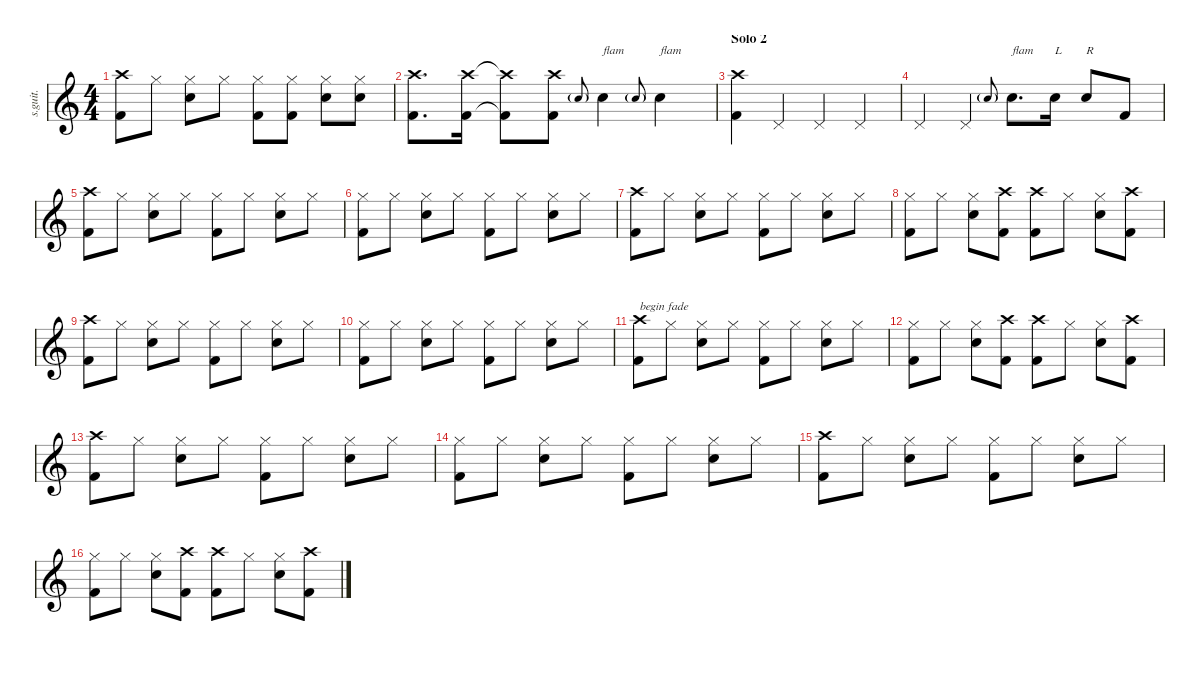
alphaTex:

\defaultSystemsLayout 4
\hideDynamics
\bracketExtendMode nobrackets
\track ("Phil Rudd - Drums" "s.guit.") {instrument percussion}
\staff {score}
\articulation defaults
\ts (4 4)
\tempo (97 hide)
\clef g2
\ks c
("Crash high (hit)" "Kick (hit) 2").8{lyrics (0 "") lyrics (1 "") lyrics (2 "") lyrics (3 "") lyrics (4 "") dy f} "Hi-Hat (closed)".8{lyrics (0 "") lyrics (1 "") lyrics (2 "") lyrics (3 "") lyrics (4 "")} ("Hi-Hat (closed)" "Snare (hit) 2").8{lyrics (0 "") lyrics (1 "") lyrics (2 "") lyrics (3 "") lyrics (4 "")} "Hi-Hat (closed)".8{lyrics (0 "") lyrics (1 "") lyrics (2 "") lyrics (3 "") lyrics (4 "")} ("Hi-Hat (closed)" "Kick (hit) 2").8{lyrics (0 "") lyrics (1 "") lyrics (2 "") lyrics (3 "") lyrics (4 "")} ("Hi-Hat (closed)" "Kick (hit) 2").8{lyrics (0 "") lyrics (1 "") lyrics (2 "") lyrics (3 "") lyrics (4 "")} ("Hi-Hat (closed)" "Snare (hit) 2").8{lyrics (0 "") lyrics (1 "") lyrics (2 "") lyrics (3 "") lyrics (4 "")} ("Hi-Hat (closed)" "Snare (hit) 2").8{lyrics (0 "") lyrics (1 "") lyrics (2 "") lyrics (3 "") lyrics (4 "")} |
("Crash high (hit)" "Kick (hit) 2").8{d lyrics (0 "") lyrics (1 "") lyrics (2 "") lyrics (3 "") lyrics (4 "")} ("Crash high (hit)" "Kick (hit) 2").16{lyrics (0 "") lyrics (1 "") lyrics (2 "") lyrics (3 "") lyrics (4 "")} ("Crash high (hit)"{t} "Kick (hit) 2"{t}).8{lyrics (0 "") lyrics (1 "") lyrics (2 "") lyrics (3 "") lyrics (4 "")} ("Crash high (hit)" "Kick (hit) 2").8{lyrics (0 "") lyrics (1 "") lyrics (2 "") lyrics (3 "") lyrics (4 "")} "Snare (hit) 2"{g}.8{lyrics (0 "") lyrics (1 "") lyrics (2 "") lyrics (3 "") lyrics (4 "") gr onbeat} "Snare (hit) 2".4{txt "flam" lyrics (0 "") lyrics (1 "") lyrics (2 "") lyrics (3 "") lyrics (4 "")} "Snare (hit) 2"{g}.8{lyrics (0 "") lyrics (1 "") lyrics (2 "") lyrics (3 "") lyrics (4 "") gr onbeat} "Snare (hit) 2".4{txt "flam" lyrics (0 "") lyrics (1 "") lyrics (2 "") lyrics (3 "") lyrics (4 "")} |
\section ("" "Solo 2")
\tempo (93 hide)
("Crash high (hit)" "Kick (hit) 2").4{lyrics (0 "") lyrics (1 "") lyrics (2 "") lyrics (3 "") lyrics (4 "")} "Pedal Hi-Hat (hit)".4{lyrics (0 "") lyrics (1 "") lyrics (2 "") lyrics (3 "") lyrics (4 "")} "Pedal Hi-Hat (hit)".4{lyrics (0 "") lyrics (1 "") lyrics (2 "") lyrics (3 "") lyrics (4 "")} "Pedal Hi-Hat (hit)".4{lyrics (0 "") lyrics (1 "") lyrics (2 "") lyrics (3 "") lyrics (4 "")} |
"Pedal Hi-Hat (hit)".4{lyrics (0 "") lyrics (1 "") lyrics (2 "") lyrics (3 "") lyrics (4 "")} "Pedal Hi-Hat (hit)".4{lyrics (0 "") lyrics (1 "") lyrics (2 "") lyrics (3 "") lyrics (4 "")} "Snare (hit) 2"{g}.8{lyrics (0 "") lyrics (1 "") lyrics (2 "") lyrics (3 "") lyrics (4 "") gr onbeat} "Snare (hit) 2".8{d txt "flam" lyrics (0 "") lyrics (1 "") lyrics (2 "") lyrics (3 "") lyrics (4 "")} "Snare (hit) 2".16{txt "L" lyrics (0 "") lyrics (1 "") lyrics (2 "") lyrics (3 "") lyrics (4 "")} "Snare (hit) 2".8{txt "R" lyrics (0 "") lyrics (1 "") lyrics (2 "") lyrics (3 "") lyrics (4 "")} "Kick (hit) 2".8{lyrics (0 "") lyrics (1 "") lyrics (2 "") lyrics (3 "") lyrics (4 "")} |
("Crash high (hit)" "Kick (hit) 2").8{lyrics (0 "") lyrics (1 "") lyrics (2 "") lyrics (3 "") lyrics (4 "")} "Hi-Hat (closed)".8{lyrics (0 "") lyrics (1 "") lyrics (2 "") lyrics (3 "") lyrics (4 "")} ("Hi-Hat (closed)" "Snare (hit) 2").8{lyrics (0 "") lyrics (1 "") lyrics (2 "") lyrics (3 "") lyrics (4 "")} "Hi-Hat (closed)".8{lyrics (0 "") lyrics (1 "") lyrics (2 "") lyrics (3 "") lyrics (4 "")} ("Hi-Hat (closed)" "Kick (hit) 2").8{lyrics (0 "") lyrics (1 "") lyrics (2 "") lyrics (3 "") lyrics (4 "")} "Hi-Hat (closed)".8{lyrics (0 "") lyrics (1 "") lyrics (2 "") lyrics (3 "") lyrics (4 "")} ("Hi-Hat (closed)" "Snare (hit) 2").8{lyrics (0 "") lyrics (1 "") lyrics (2 "") lyrics (3 "") lyrics (4 "")} "Hi-Hat (closed)".8{lyrics (0 "") lyrics (1 "") lyrics (2 "") lyrics (3 "") lyrics (4 "")} |
("Hi-Hat (closed)" "Kick (hit) 2").8{lyrics (0 "") lyrics (1 "") lyrics (2 "") lyrics (3 "") lyrics (4 "")} "Hi-Hat (closed)".8{lyrics (0 "") lyrics (1 "") lyrics (2 "") lyrics (3 "") lyrics (4 "")} ("Hi-Hat (closed)" "Snare (hit) 2").8{lyrics (0 "") lyrics (1 "") lyrics (2 "") lyrics (3 "") lyrics (4 "")} "Hi-Hat (closed)".8{lyrics (0 "") lyrics (1 "") lyrics (2 "") lyrics (3 "") lyrics (4 "")} ("Hi-Hat (closed)" "Kick (hit) 2").8{lyrics (0 "") lyrics (1 "") lyrics (2 "") lyrics (3 "") lyrics (4 "")} "Hi-Hat (closed)".8{lyrics (0 "") lyrics (1 "") lyrics (2 "") lyrics (3 "") lyrics (4 "")} ("Hi-Hat (closed)" "Snare (hit) 2").8{lyrics (0 "") lyrics (1 "") lyrics (2 "") lyrics (3 "") lyrics (4 "")} "Hi-Hat (closed)".8{lyrics (0 "") lyrics (1 "") lyrics (2 "") lyrics (3 "") lyrics (4 "")} |
("Crash high (hit)" "Kick (hit) 2").8{lyrics (0 "") lyrics (1 "") lyrics (2 "") lyrics (3 "") lyrics (4 "")} "Hi-Hat (closed)".8{lyrics (0 "") lyrics (1 "") lyrics (2 "") lyrics (3 "") lyrics (4 "")} ("Hi-Hat (closed)" "Snare (hit) 2").8{lyrics (0 "") lyrics (1 "") lyrics (2 "") lyrics (3 "") lyrics (4 "")} "Hi-Hat (closed)".8{lyrics (0 "") lyrics (1 "") lyrics (2 "") lyrics (3 "") lyrics (4 "")} ("Hi-Hat (closed)" "Kick (hit) 2").8{lyrics (0 "") lyrics (1 "") lyrics (2 "") lyrics (3 "") lyrics (4 "")} "Hi-Hat (closed)".8{lyrics (0 "") lyrics (1 "") lyrics (2 "") lyrics (3 "") lyrics (4 "")} ("Hi-Hat (closed)" "Snare (hit) 2").8{lyrics (0 "") lyrics (1 "") lyrics (2 "") lyrics (3 "") lyrics (4 "")} "Hi-Hat (closed)".8{lyrics (0 "") lyrics (1 "") lyrics (2 "") lyrics (3 "") lyrics (4 "")} |
("Hi-Hat (closed)" "Kick (hit) 2").8{lyrics (0 "") lyrics (1 "") lyrics (2 "") lyrics (3 "") lyrics (4 "")} "Hi-Hat (closed)".8{lyrics (0 "") lyrics (1 "") lyrics (2 "") lyrics (3 "") lyrics (4 "")} ("Hi-Hat (closed)" "Snare (hit) 2").8{lyrics (0 "") lyrics (1 "") lyrics (2 "") lyrics (3 "") lyrics (4 "")} ("Crash high (hit)" "Kick (hit) 2").8{lyrics (0 "") lyrics (1 "") lyrics (2 "") lyrics (3 "") lyrics (4 "")} ("Crash high (hit)" "Kick (hit) 2").8{lyrics (0 "") lyrics (1 "") lyrics (2 "") lyrics (3 "") lyrics (4 "")} "Hi-Hat (closed)".8{lyrics (0 "") lyrics (1 "") lyrics (2 "") lyrics (3 "") lyrics (4 "")} ("Hi-Hat (closed)" "Snare (hit) 2").8{lyrics (0 "") lyrics (1 "") lyrics (2 "") lyrics (3 "") lyrics (4 "")} ("Crash high (hit)" "Kick (hit) 2").8{lyrics (0 "") lyrics (1 "") lyrics (2 "") lyrics (3 "") lyrics (4 "")} |
("Crash high (hit)" "Kick (hit) 2").8{lyrics (0 "") lyrics (1 "") lyrics (2 "") lyrics (3 "") lyrics (4 "")} "Hi-Hat (closed)".8{lyrics (0 "") lyrics (1 "") lyrics (2 "") lyrics (3 "") lyrics (4 "")} ("Hi-Hat (closed)" "Snare (hit) 2").8{lyrics (0 "") lyrics (1 "") lyrics (2 "") lyrics (3 "") lyrics (4 "")} "Hi-Hat (closed)".8{lyrics (0 "") lyrics (1 "") lyrics (2 "") lyrics (3 "") lyrics (4 "")} ("Hi-Hat (closed)" "Kick (hit) 2").8{lyrics (0 "") lyrics (1 "") lyrics (2 "") lyrics (3 "") lyrics (4 "")} "Hi-Hat (closed)".8{lyrics (0 "") lyrics (1 "") lyrics (2 "") lyrics (3 "") lyrics (4 "")} ("Hi-Hat (closed)" "Snare (hit) 2").8{lyrics (0 "") lyrics (1 "") lyrics (2 "") lyrics (3 "") lyrics (4 "")} "Hi-Hat (closed)".8{lyrics (0 "") lyrics (1 "") lyrics (2 "") lyrics (3 "") lyrics (4 "")} |
("Hi-Hat (closed)" "Kick (hit) 2").8{lyrics (0 "") lyrics (1 "") lyrics (2 "") lyrics (3 "") lyrics (4 "")} "Hi-Hat (closed)".8{lyrics (0 "") lyrics (1 "") lyrics (2 "") lyrics (3 "") lyrics (4 "")} ("Hi-Hat (closed)" "Snare (hit) 2").8{lyrics (0 "") lyrics (1 "") lyrics (2 "") lyrics (3 "") lyrics (4 "")} "Hi-Hat (closed)".8{lyrics (0 "") lyrics (1 "") lyrics (2 "") lyrics (3 "") lyrics (4 "")} ("Hi-Hat (closed)" "Kick (hit) 2").8{lyrics (0 "") lyrics (1 "") lyrics (2 "") lyrics (3 "") lyrics (4 "")} "Hi-Hat (closed)".8{lyrics (0 "") lyrics (1 "") lyrics (2 "") lyrics (3 "") lyrics (4 "")} ("Hi-Hat (closed)" "Snare (hit) 2").8{lyrics (0 "") lyrics (1 "") lyrics (2 "") lyrics (3 "") lyrics (4 "")} "Hi-Hat (closed)".8{lyrics (0 "") lyrics (1 "") lyrics (2 "") lyrics (3 "") lyrics (4 "")} |
("Crash high (hit)" "Kick (hit) 2").8{txt "begin fade" lyrics (0 "") lyrics (1 "") lyrics (2 "") lyrics (3 "") lyrics (4 "")} "Hi-Hat (closed)".8{lyrics (0 "") lyrics (1 "") lyrics (2 "") lyrics (3 "") lyrics (4 "")} ("Hi-Hat (closed)" "Snare (hit) 2").8{lyrics (0 "") lyrics (1 "") lyrics (2 "") lyrics (3 "") lyrics (4 "")} "Hi-Hat (closed)".8{lyrics (0 "") lyrics (1 "") lyrics (2 "") lyrics (3 "") lyrics (4 "")} ("Hi-Hat (closed)" "Kick (hit) 2").8{lyrics (0 "") lyrics (1 "") lyrics (2 "") lyrics (3 "") lyrics (4 "")} "Hi-Hat (closed)".8{lyrics (0 "") lyrics (1 "") lyrics (2 "") lyrics (3 "") lyrics (4 "")} ("Hi-Hat (closed)" "Snare (hit) 2").8{lyrics (0 "") lyrics (1 "") lyrics (2 "") lyrics (3 "") lyrics (4 "")} "Hi-Hat (closed)".8{lyrics (0 "") lyrics (1 "") lyrics (2 "") lyrics (3 "") lyrics (4 "")} |
("Hi-Hat (closed)" "Kick (hit) 2").8{lyrics (0 "") lyrics (1 "") lyrics (2 "") lyrics (3 "") lyrics (4 "")} "Hi-Hat (closed)".8{lyrics (0 "") lyrics (1 "") lyrics (2 "") lyrics (3 "") lyrics (4 "")} ("Hi-Hat (closed)" "Snare (hit) 2").8{lyrics (0 "") lyrics (1 "") lyrics (2 "") lyrics (3 "") lyrics (4 "")} ("Crash high (hit)" "Kick (hit) 2").8{lyrics (0 "") lyrics (1 "") lyrics (2 "") lyrics (3 "") lyrics (4 "")} ("Crash high (hit)" "Kick (hit) 2").8{lyrics (0 "") lyrics (1 "") lyrics (2 "") lyrics (3 "") lyrics (4 "")} "Hi-Hat (closed)".8{lyrics (0 "") lyrics (1 "") lyrics (2 "") lyrics (3 "") lyrics (4 "")} ("Hi-Hat (closed)" "Snare (hit) 2").8{lyrics (0 "") lyrics (1 "") lyrics (2 "") lyrics (3 "") lyrics (4 "")} ("Crash high (hit)" "Kick (hit) 2").8{lyrics (0 "") lyrics (1 "") lyrics (2 "") lyrics (3 "") lyrics (4 "")} |
("Crash high (hit)" "Kick (hit) 2").8{lyrics (0 "") lyrics (1 "") lyrics (2 "") lyrics (3 "") lyrics (4 "")} "Hi-Hat (closed)".8{lyrics (0 "") lyrics (1 "") lyrics (2 "") lyrics (3 "") lyrics (4 "")} ("Hi-Hat (closed)" "Snare (hit) 2").8{lyrics (0 "") lyrics (1 "") lyrics (2 "") lyrics (3 "") lyrics (4 "")} "Hi-Hat (closed)".8{lyrics (0 "") lyrics (1 "") lyrics (2 "") lyrics (3 "") lyrics (4 "")} ("Hi-Hat (closed)" "Kick (hit) 2").8{lyrics (0 "") lyrics (1 "") lyrics (2 "") lyrics (3 "") lyrics (4 "")} "Hi-Hat (closed)".8{lyrics (0 "") lyrics (1 "") lyrics (2 "") lyrics (3 "") lyrics (4 "")} ("Hi-Hat (closed)" "Snare (hit) 2").8{lyrics (0 "") lyrics (1 "") lyrics (2 "") lyrics (3 "") lyrics (4 "")} "Hi-Hat (closed)".8{lyrics (0 "") lyrics (1 "") lyrics (2 "") lyrics (3 "") lyrics (4 "")} |
("Hi-Hat (closed)" "Kick (hit) 2").8{lyrics (0 "") lyrics (1 "") lyrics (2 "") lyrics (3 "") lyrics (4 "")} "Hi-Hat (closed)".8{lyrics (0 "") lyrics (1 "") lyrics (2 "") lyrics (3 "") lyrics (4 "")} ("Hi-Hat (closed)" "Snare (hit) 2").8{lyrics (0 "") lyrics (1 "") lyrics (2 "") lyrics (3 "") lyrics (4 "")} "Hi-Hat (closed)".8{lyrics (0 "") lyrics (1 "") lyrics (2 "") lyrics (3 "") lyrics (4 "")} ("Hi-Hat (closed)" "Kick (hit) 2").8{lyrics (0 "") lyrics (1 "") lyrics (2 "") lyrics (3 "") lyrics (4 "")} "Hi-Hat (closed)".8{lyrics (0 "") lyrics (1 "") lyrics (2 "") lyrics (3 "") lyrics (4 "")} ("Hi-Hat (closed)" "Snare (hit) 2").8{lyrics (0 "") lyrics (1 "") lyrics (2 "") lyrics (3 "") lyrics (4 "")} "Hi-Hat (closed)".8{lyrics (0 "") lyrics (1 "") lyrics (2 "") lyrics (3 "") lyrics (4 "")} |
("Crash high (hit)" "Kick (hit) 2").8{lyrics (0 "") lyrics (1 "") lyrics (2 "") lyrics (3 "") lyrics (4 "")} "Hi-Hat (closed)".8{lyrics (0 "") lyrics (1 "") lyrics (2 "") lyrics (3 "") lyrics (4 "")} ("Hi-Hat (closed)" "Snare (hit) 2").8{lyrics (0 "") lyrics (1 "") lyrics (2 "") lyrics (3 "") lyrics (4 "")} "Hi-Hat (closed)".8{lyrics (0 "") lyrics (1 "") lyrics (2 "") lyrics (3 "") lyrics (4 "")} ("Hi-Hat (closed)" "Kick (hit) 2").8{lyrics (0 "") lyrics (1 "") lyrics (2 "") lyrics (3 "") lyrics (4 "")} "Hi-Hat (closed)".8{lyrics (0 "") lyrics (1 "") lyrics (2 "") lyrics (3 "") lyrics (4 "")} ("Hi-Hat (closed)" "Snare (hit) 2").8{lyrics (0 "") lyrics (1 "") lyrics (2 "") lyrics (3 "") lyrics (4 "")} "Hi-Hat (closed)".8{lyrics (0 "") lyrics (1 "") lyrics (2 "") lyrics (3 "") lyrics (4 "")} |
("Hi-Hat (closed)" "Kick (hit) 2").8{lyrics (0 "") lyrics (1 "") lyrics (2 "") lyrics (3 "") lyrics (4 "")} "Hi-Hat (closed)".8{lyrics (0 "") lyrics (1 "") lyrics (2 "") lyrics (3 "") lyrics (4 "")} ("Hi-Hat (closed)" "Snare (hit) 2").8{lyrics (0 "") lyrics (1 "") lyrics (2 "") lyrics (3 "") lyrics (4 "")} ("Crash high (hit)" "Kick (hit) 2").8{lyrics (0 "") lyrics (1 "") lyrics (2 "") lyrics (3 "") lyrics (4 "")} ("Crash high (hit)" "Kick (hit) 2").8{lyrics (0 "") lyrics (1 "") lyrics (2 "") lyrics (3 "") lyrics (4 "")} "Hi-Hat (closed)".8{lyrics (0 "") lyrics (1 "") lyrics (2 "") lyrics (3 "") lyrics (4 "")} ("Hi-Hat (closed)" "Snare (hit) 2").8{lyrics (0 "") lyrics (1 "") lyrics (2 "") lyrics (3 "") lyrics (4 "")} ("Crash high (hit)" "Kick (hit) 2").8{lyrics (0 "") lyrics (1 "") lyrics (2 "") lyrics (3 "") lyrics (4 "")}
